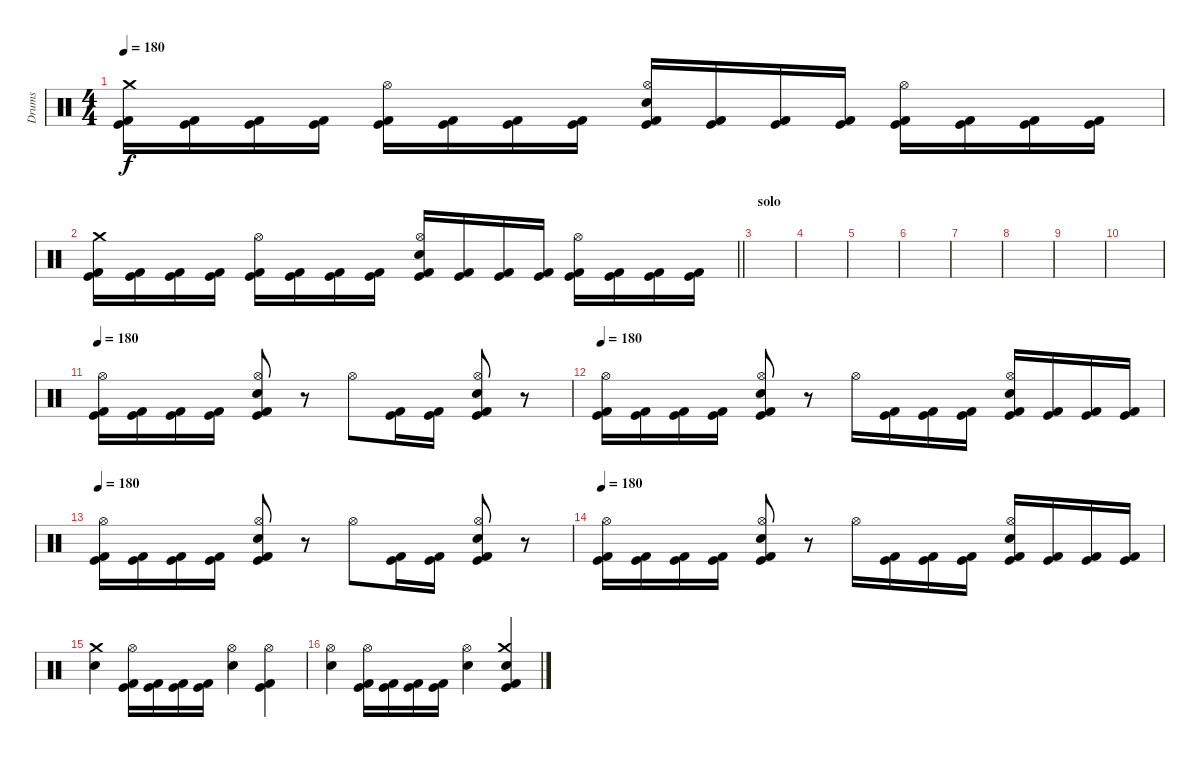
\track ("Drums" "Drums") {instrument percussion}
\staff {score}
\articulation defaults
\ts (4 4)
\tempo 180
\clef neutral
\ks c
("Kick (hit)" "Kick (hit) 2" "Crash medium (hit)").16{dy f} ("Kick (hit)" "Kick (hit) 2").16 ("Kick (hit)" "Kick (hit) 2").16 ("Kick (hit)" "Kick (hit) 2").16 ("Kick (hit)" "Kick (hit) 2" "Hi-Hat (open)").16 ("Kick (hit)" "Kick (hit) 2").16 ("Kick (hit)" "Kick (hit) 2").16 ("Kick (hit)" "Kick (hit) 2").16 ("Kick (hit)" "Kick (hit) 2" "Hi-Hat (open)" "Electric Snare (hit)").16 ("Kick (hit)" "Kick (hit) 2").16 ("Kick (hit)" "Kick (hit) 2").16 ("Kick (hit)" "Kick (hit) 2").16 ("Kick (hit)" "Kick (hit) 2" "Hi-Hat (open)").16 ("Kick (hit)" "Kick (hit) 2").16 ("Kick (hit)" "Kick (hit) 2").16 ("Kick (hit)" "Kick (hit) 2").16 |
\barLineRight lightlight
("Kick (hit)" "Kick (hit) 2" "Crash medium (hit)").16 ("Kick (hit)" "Kick (hit) 2").16 ("Kick (hit)" "Kick (hit) 2").16 ("Kick (hit)" "Kick (hit) 2").16 ("Kick (hit)" "Kick (hit) 2" "Hi-Hat (open)").16 ("Kick (hit)" "Kick (hit) 2").16 ("Kick (hit)" "Kick (hit) 2").16 ("Kick (hit)" "Kick (hit) 2").16 ("Kick (hit)" "Kick (hit) 2" "Hi-Hat (open)" "Electric Snare (hit)").16 ("Kick (hit)" "Kick (hit) 2").16 ("Kick (hit)" "Kick (hit) 2").16 ("Kick (hit)" "Kick (hit) 2").16 ("Kick (hit)" "Kick (hit) 2" "Hi-Hat (open)").16 ("Kick (hit)" "Kick (hit) 2").16 ("Kick (hit)" "Kick (hit) 2").16 ("Kick (hit)" "Kick (hit) 2").16 |
\section ("" "solo")
|
|
|
|
|
|
|
|
\tempo 180
("Kick (hit) 2" "Kick (hit)" "Hi-Hat (open)").16 ("Kick (hit) 2" "Kick (hit)").16 ("Kick (hit) 2" "Kick (hit)").16 ("Kick (hit) 2" "Kick (hit)").16 ("Kick (hit) 2" "Kick (hit)" "Electric Snare (hit)" "Hi-Hat (open)").8 r.8 "Hi-Hat (open)".8 ("Kick (hit) 2" "Kick (hit)").16 ("Kick (hit) 2" "Kick (hit)").16 ("Kick (hit) 2" "Kick (hit)" "Hi-Hat (open)" "Electric Snare (hit)").8 r.8 |
\tempo 180
("Kick (hit) 2" "Kick (hit)" "Hi-Hat (open)").16 ("Kick (hit) 2" "Kick (hit)").16 ("Kick (hit) 2" "Kick (hit)").16 ("Kick (hit) 2" "Kick (hit)").16 ("Kick (hit) 2" "Kick (hit)" "Electric Snare (hit)" "Hi-Hat (open)").8 r.8 "Hi-Hat (open)".16 ("Kick (hit) 2" "Kick (hit)").16 ("Kick (hit) 2" "Kick (hit)").16 ("Kick (hit) 2" "Kick (hit)").16 ("Kick (hit) 2" "Kick (hit)" "Hi-Hat (open)" "Electric Snare (hit)").16 ("Kick (hit) 2" "Kick (hit)").16 ("Kick (hit) 2" "Kick (hit)").16 ("Kick (hit) 2" "Kick (hit)").16 |
\tempo 180
("Kick (hit) 2" "Kick (hit)" "Hi-Hat (open)").16 ("Kick (hit) 2" "Kick (hit)").16 ("Kick (hit) 2" "Kick (hit)").16 ("Kick (hit) 2" "Kick (hit)").16 ("Kick (hit) 2" "Kick (hit)" "Electric Snare (hit)" "Hi-Hat (open)").8 r.8 "Hi-Hat (open)".8 ("Kick (hit) 2" "Kick (hit)").16 ("Kick (hit) 2" "Kick (hit)").16 ("Kick (hit) 2" "Kick (hit)" "Hi-Hat (open)" "Electric Snare (hit)").8 r.8 |
\tempo 180
("Kick (hit) 2" "Kick (hit)" "Hi-Hat (open)").16 ("Kick (hit) 2" "Kick (hit)").16 ("Kick (hit) 2" "Kick (hit)").16 ("Kick (hit) 2" "Kick (hit)").16 ("Kick (hit) 2" "Kick (hit)" "Electric Snare (hit)" "Hi-Hat (open)").8 r.8 "Hi-Hat (open)".16 ("Kick (hit) 2" "Kick (hit)").16 ("Kick (hit) 2" "Kick (hit)").16 ("Kick (hit) 2" "Kick (hit)").16 ("Kick (hit) 2" "Kick (hit)" "Hi-Hat (open)" "Electric Snare (hit)").16 ("Kick (hit) 2" "Kick (hit)").16 ("Kick (hit) 2" "Kick (hit)").16 ("Kick (hit) 2" "Kick (hit)").16 |
("Electric Snare (hit)" "Crash medium (hit)").4 ("Kick (hit) 2" "Hi-Hat (open)" "Kick (hit)").16 ("Kick (hit) 2" "Kick (hit)").16 ("Kick (hit) 2" "Kick (hit)").16 ("Kick (hit) 2" "Kick (hit)").16 ("Electric Snare (hit)" "Hi-Hat (open)").4 ("Kick (hit) 2" "Hi-Hat (open)" "Kick (hit)").4 |
("Electric Snare (hit)" "Hi-Hat (open)").4 ("Kick (hit) 2" "Hi-Hat (open)" "Kick (hit)").16 ("Kick (hit) 2" "Kick (hit)").16 ("Kick (hit) 2" "Kick (hit)").16 ("Kick (hit) 2" "Kick (hit)").16 ("Electric Snare (hit)" "Hi-Hat (open)").4 ("Kick (hit) 2" "Electric Snare (hit)" "Crash medium (hit)" "Kick (hit)").4
